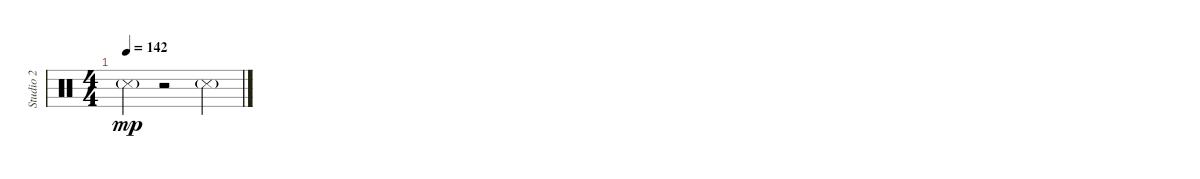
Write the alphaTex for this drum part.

\track ("Studio 2" "Studio 2") {instrument percussion}
\staff {score}
\articulation defaults
\ts (4 4)
\tempo 142
\clef neutral
\ks c "Metronome (hit)"{g}.4{dy mp}
r.2 "Snare (side stick) 3"{g}.4
